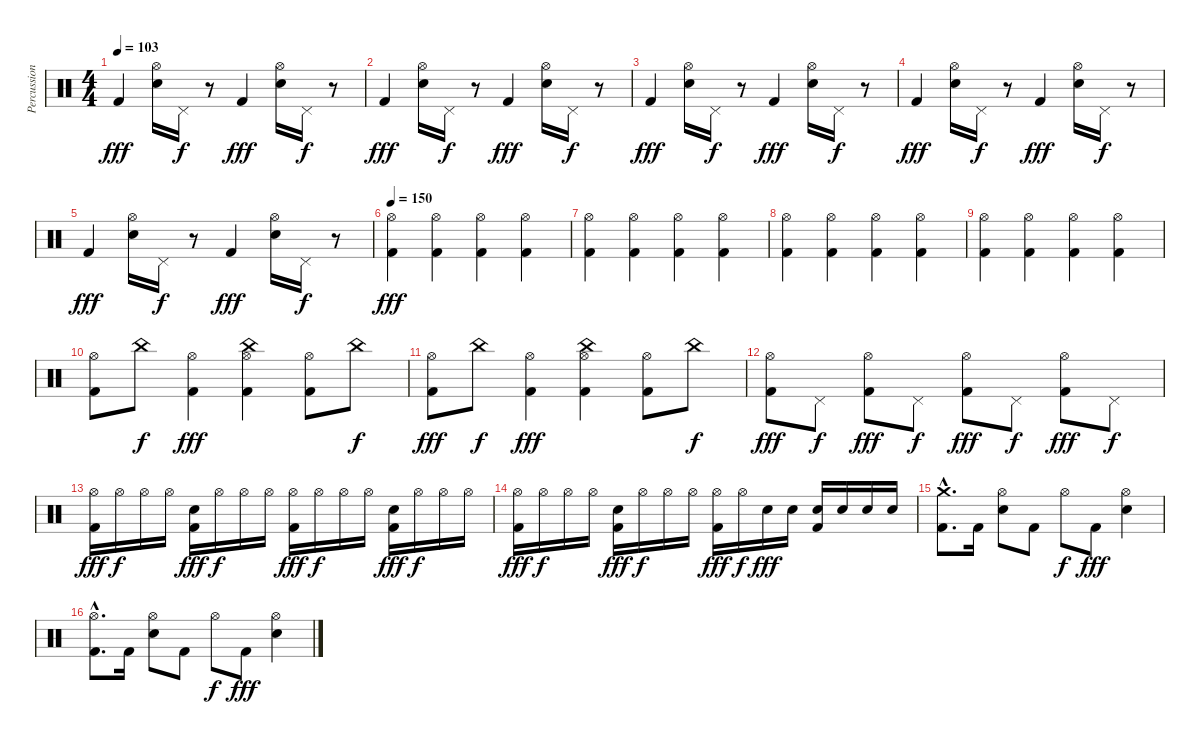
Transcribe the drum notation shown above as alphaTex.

\track ("Percussions" "Percussion") {instrument percussion}
\staff {score}
\articulation defaults
\ts (4 4)
\tempo 103
\clef neutral
\ks c "Kick (hit) 2".4{dy fff}
("Hi-Hat (open)" "Electric Snare (hit)").16 "Pedal Hi-Hat (hit)".16{dy f} r.8 "Kick (hit) 2".4{dy fff} ("Hi-Hat (open)" "Electric Snare (hit)").16 "Pedal Hi-Hat (hit)".16{dy f} r.8 |
"Kick (hit) 2".4{dy fff} ("Hi-Hat (open)" "Electric Snare (hit)").16 "Pedal Hi-Hat (hit)".16{dy f} r.8 "Kick (hit) 2".4{dy fff} ("Hi-Hat (open)" "Electric Snare (hit)").16 "Pedal Hi-Hat (hit)".16{dy f} r.8 |
"Kick (hit) 2".4{dy fff} ("Hi-Hat (open)" "Electric Snare (hit)").16 "Pedal Hi-Hat (hit)".16{dy f} r.8 "Kick (hit) 2".4{dy fff} ("Hi-Hat (open)" "Electric Snare (hit)").16 "Pedal Hi-Hat (hit)".16{dy f} r.8 |
"Kick (hit) 2".4{dy fff} ("Hi-Hat (open)" "Electric Snare (hit)").16 "Pedal Hi-Hat (hit)".16{dy f} r.8 "Kick (hit) 2".4{dy fff} ("Hi-Hat (open)" "Electric Snare (hit)").16 "Pedal Hi-Hat (hit)".16{dy f} r.8 |
"Kick (hit) 2".4{dy fff} ("Hi-Hat (open)" "Electric Snare (hit)").16 "Pedal Hi-Hat (hit)".16{dy f} r.8 "Kick (hit) 2".4{dy fff} ("Hi-Hat (open)" "Electric Snare (hit)").16 "Pedal Hi-Hat (hit)".16{dy f} r.8 |
\tempo 150
("Hi-Hat (open)" "Kick (hit) 2").4{dy fff} ("Hi-Hat (open)" "Kick (hit) 2").4 ("Hi-Hat (open)" "Kick (hit) 2").4 ("Hi-Hat (open)" "Kick (hit) 2").4 |
("Hi-Hat (open)" "Kick (hit) 2").4 ("Hi-Hat (open)" "Kick (hit) 2").4 ("Hi-Hat (open)" "Kick (hit) 2").4 ("Hi-Hat (open)" "Kick (hit) 2").4 |
("Hi-Hat (open)" "Kick (hit) 2").4 ("Hi-Hat (open)" "Kick (hit) 2").4 ("Hi-Hat (open)" "Kick (hit) 2").4 ("Hi-Hat (open)" "Kick (hit) 2").4 |
("Hi-Hat (open)" "Kick (hit) 2").4 ("Hi-Hat (open)" "Kick (hit) 2").4 ("Hi-Hat (open)" "Kick (hit) 2").4 ("Hi-Hat (open)" "Kick (hit) 2").4 |
("Hi-Hat (open)" "Kick (hit) 2").8 "China (hit)".8{dy f} ("Hi-Hat (open)" "Kick (hit) 2").4{dy fff} ("Hi-Hat (open)" "China (hit)" "Kick (hit) 2").4 ("Hi-Hat (open)" "Kick (hit) 2").8 "China (hit)".8{dy f} |
("Hi-Hat (open)" "Kick (hit) 2").8{dy fff} "China (hit)".8{dy f} ("Hi-Hat (open)" "Kick (hit) 2").4{dy fff} ("Hi-Hat (open)" "China (hit)" "Kick (hit) 2").4 ("Hi-Hat (open)" "Kick (hit) 2").8 "China (hit)".8{dy f} |
("Hi-Hat (open)" "Kick (hit) 2").8{dy fff} "Pedal Hi-Hat (hit)".8{dy f} ("Hi-Hat (open)" "Kick (hit) 2").8{dy fff} "Pedal Hi-Hat (hit)".8{dy f} ("Hi-Hat (open)" "Kick (hit) 2").8{dy fff} "Pedal Hi-Hat (hit)".8{dy f} ("Hi-Hat (open)" "Kick (hit) 2").8{dy fff} "Pedal Hi-Hat (hit)".8{dy f} |
("Hi-Hat (open)" "Kick (hit) 2").16{dy fff} "Hi-Hat (open)".16{dy f} "Hi-Hat (open)".16 "Hi-Hat (open)".16 ("Electric Snare (hit)" "Kick (hit) 2").16{dy fff} "Hi-Hat (open)".16{dy f} "Hi-Hat (open)".16 "Hi-Hat (open)".16 ("Hi-Hat (open)" "Kick (hit) 2").16{dy fff} "Hi-Hat (open)".16{dy f} "Hi-Hat (open)".16 "Hi-Hat (open)".16 ("Electric Snare (hit)" "Kick (hit) 2").16{dy fff} "Hi-Hat (open)".16{dy f} "Hi-Hat (open)".16 "Hi-Hat (open)".16 |
("Hi-Hat (open)" "Kick (hit) 2").16{dy fff} "Hi-Hat (open)".16{dy f} "Hi-Hat (open)".16 "Hi-Hat (open)".16 ("Electric Snare (hit)" "Kick (hit) 2").16{dy fff} "Hi-Hat (open)".16{dy f} "Hi-Hat (open)".16 "Hi-Hat (open)".16 ("Hi-Hat (open)" "Kick (hit) 2").16{dy fff} "Hi-Hat (open)".16{dy f} "Electric Snare (hit)".16{dy fff} "Electric Snare (hit)".16 ("Electric Snare (hit)" "Kick (hit) 2").16 "Electric Snare (hit)".16 "Electric Snare (hit)".16 "Electric Snare (hit)".16 |
("Crash medium (hit)"{hac} "Kick (hit) 2"{hac}).8{d} "Kick (hit) 2".16 ("Hi-Hat (open)" "Electric Snare (hit)").8 "Kick (hit) 2".8 "Hi-Hat (open)".8{dy f} "Kick (hit) 2".8{dy fff} ("Hi-Hat (open)" "Electric Snare (hit)").4 |
("Hi-Hat (open)"{hac} "Kick (hit) 2"{hac}).8{d} "Kick (hit) 2".16 ("Hi-Hat (open)" "Electric Snare (hit)").8 "Kick (hit) 2".8 "Hi-Hat (open)".8{dy f} "Kick (hit) 2".8{dy fff} ("Hi-Hat (open)" "Electric Snare (hit)").4
